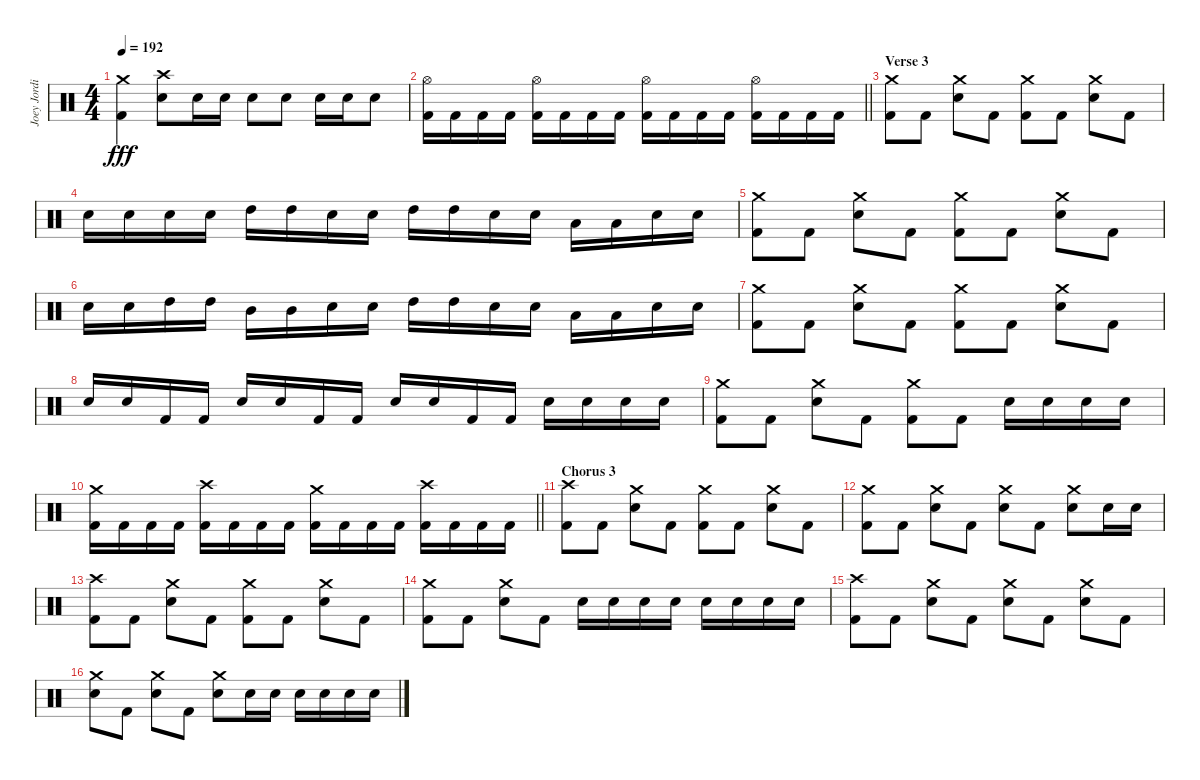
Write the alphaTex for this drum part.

\track ("Joey Jordison" "Joey Jordi") {instrument percussion}
\staff {score}
\articulation defaults
\ts (4 4)
\tempo 192
\clef neutral
\ks c
("Crash medium (hit)" "Kick (hit) 2").4{dy fff} ("Crash high (hit)" "Electric Snare (hit)").8 "Electric Snare (hit)".16 "Electric Snare (hit)".16 "Electric Snare (hit)".8 "Electric Snare (hit)".8 "Electric Snare (hit)".16 "Electric Snare (hit)".16 "Electric Snare (hit)".8 |
\barLineRight lightlight
("Hi-Hat (open)" "Kick (hit) 2").16 "Kick (hit) 2".16 "Kick (hit) 2".16 "Kick (hit) 2".16 ("Hi-Hat (open)" "Kick (hit) 2").16 "Kick (hit) 2".16 "Kick (hit) 2".16 "Kick (hit) 2".16 ("Hi-Hat (open)" "Kick (hit) 2").16 "Kick (hit) 2".16 "Kick (hit) 2".16 "Kick (hit) 2".16 ("Hi-Hat (open)" "Kick (hit) 2").16 "Kick (hit) 2".16 "Kick (hit) 2".16 "Kick (hit) 2".16 |
\section ("" "Verse 3")
("Crash medium (hit)" "Kick (hit) 2").8 "Kick (hit) 2".8 ("Crash medium (hit)" "Electric Snare (hit)").8 "Kick (hit) 2".8 ("Crash medium (hit)" "Kick (hit) 2").8 "Kick (hit) 2".8 ("Crash medium (hit)" "Electric Snare (hit)").8 "Kick (hit) 2".8 |
"Electric Snare (hit)".16 "Electric Snare (hit)".16 "Electric Snare (hit)".16 "Electric Snare (hit)".16 "High Tom (hit)".16 "High Tom (hit)".16 "Electric Snare (hit)".16 "Electric Snare (hit)".16 "High Tom (hit)".16 "High Tom (hit)".16 "Electric Snare (hit)".16 "Electric Snare (hit)".16 "Low Tom (hit)".16 "Low Tom (hit)".16 "Electric Snare (hit)".16 "Electric Snare (hit)".16 |
("Crash medium (hit)" "Kick (hit) 2").8 "Kick (hit) 2".8 ("Crash medium (hit)" "Electric Snare (hit)").8 "Kick (hit) 2".8 ("Crash medium (hit)" "Kick (hit) 2").8 "Kick (hit) 2".8 ("Crash medium (hit)" "Electric Snare (hit)").8 "Kick (hit) 2".8 |
"Electric Snare (hit)".16 "Electric Snare (hit)".16 "High Tom (hit)".16 "High Tom (hit)".16 "Mid Tom (hit)".16 "Mid Tom (hit)".16 "Electric Snare (hit)".16 "Electric Snare (hit)".16 "High Tom (hit)".16 "High Tom (hit)".16 "Electric Snare (hit)".16 "Electric Snare (hit)".16 "Low Tom (hit)".16 "Low Tom (hit)".16 "Electric Snare (hit)".16 "Electric Snare (hit)".16 |
("Crash medium (hit)" "Kick (hit) 2").8 "Kick (hit) 2".8 ("Crash medium (hit)" "Electric Snare (hit)").8 "Kick (hit) 2".8 ("Crash medium (hit)" "Kick (hit) 2").8 "Kick (hit) 2".8 ("Crash medium (hit)" "Electric Snare (hit)").8 "Kick (hit) 2".8 |
"Electric Snare (hit)".16 "Electric Snare (hit)".16 "Kick (hit) 2".16 "Kick (hit) 2".16 "Electric Snare (hit)".16 "Electric Snare (hit)".16 "Kick (hit) 2".16 "Kick (hit) 2".16 "Electric Snare (hit)".16 "Electric Snare (hit)".16 "Kick (hit) 2".16 "Kick (hit) 2".16 "Electric Snare (hit)".16 "Electric Snare (hit)".16 "Electric Snare (hit)".16 "Electric Snare (hit)".16 |
("Crash medium (hit)" "Kick (hit) 2").8 "Kick (hit) 2".8 ("Crash medium (hit)" "Electric Snare (hit)").8 "Kick (hit) 2".8 ("Crash medium (hit)" "Kick (hit) 2").8 "Kick (hit) 2".8 "Electric Snare (hit)".16 "Electric Snare (hit)".16 "Electric Snare (hit)".16 "Electric Snare (hit)".16 |
\barLineRight lightlight
("Crash medium (hit)" "Kick (hit) 2").16 "Kick (hit) 2".16 "Kick (hit) 2".16 "Kick (hit) 2".16 ("Crash high (hit)" "Kick (hit) 2").16 "Kick (hit) 2".16 "Kick (hit) 2".16 "Kick (hit) 2".16 ("Crash medium (hit)" "Kick (hit) 2").16 "Kick (hit) 2".16 "Kick (hit) 2".16 "Kick (hit) 2".16 ("Crash high (hit)" "Kick (hit) 2").16 "Kick (hit) 2".16 "Kick (hit) 2".16 "Kick (hit) 2".16 |
\section ("" "Chorus 3")
("Crash high (hit)" "Kick (hit) 2").8 "Kick (hit) 2".8 ("Crash medium (hit)" "Electric Snare (hit)").8 "Kick (hit) 2".8 ("Crash medium (hit)" "Kick (hit) 2").8 "Kick (hit) 2".8 ("Crash medium (hit)" "Electric Snare (hit)").8 "Kick (hit) 2".8 |
("Crash medium (hit)" "Kick (hit) 2").8 "Kick (hit) 2".8 ("Crash medium (hit)" "Electric Snare (hit)").8 "Kick (hit) 2".8 ("Crash medium (hit)" "Electric Snare (hit)").8 "Kick (hit) 2".8 ("Crash medium (hit)" "Electric Snare (hit)").8 "Electric Snare (hit)".16 "Electric Snare (hit)".16 |
("Crash high (hit)" "Kick (hit) 2").8 "Kick (hit) 2".8 ("Crash medium (hit)" "Electric Snare (hit)").8 "Kick (hit) 2".8 ("Crash medium (hit)" "Kick (hit) 2").8 "Kick (hit) 2".8 ("Crash medium (hit)" "Electric Snare (hit)").8 "Kick (hit) 2".8 |
("Crash medium (hit)" "Kick (hit) 2").8 "Kick (hit) 2".8 ("Crash medium (hit)" "Electric Snare (hit)").8 "Kick (hit) 2".8 "Electric Snare (hit)".16 "Electric Snare (hit)".16 "Electric Snare (hit)".16 "Electric Snare (hit)".16 "Electric Snare (hit)".16 "Electric Snare (hit)".16 "Electric Snare (hit)".16 "Electric Snare (hit)".16 |
("Crash high (hit)" "Kick (hit) 2").8 "Kick (hit) 2".8 ("Crash medium (hit)" "Electric Snare (hit)").8 "Kick (hit) 2".8 ("Crash medium (hit)" "Electric Snare (hit)").8 "Kick (hit) 2".8 ("Crash medium (hit)" "Electric Snare (hit)").8 "Kick (hit) 2".8 |
("Crash medium (hit)" "Electric Snare (hit)").8 "Kick (hit) 2".8 ("Crash medium (hit)" "Electric Snare (hit)").8 "Kick (hit) 2".8 ("Crash medium (hit)" "Electric Snare (hit)").8 "Electric Snare (hit)".16 "Electric Snare (hit)".16 "Electric Snare (hit)".16 "Electric Snare (hit)".16 "Electric Snare (hit)".16 "Electric Snare (hit)".16
